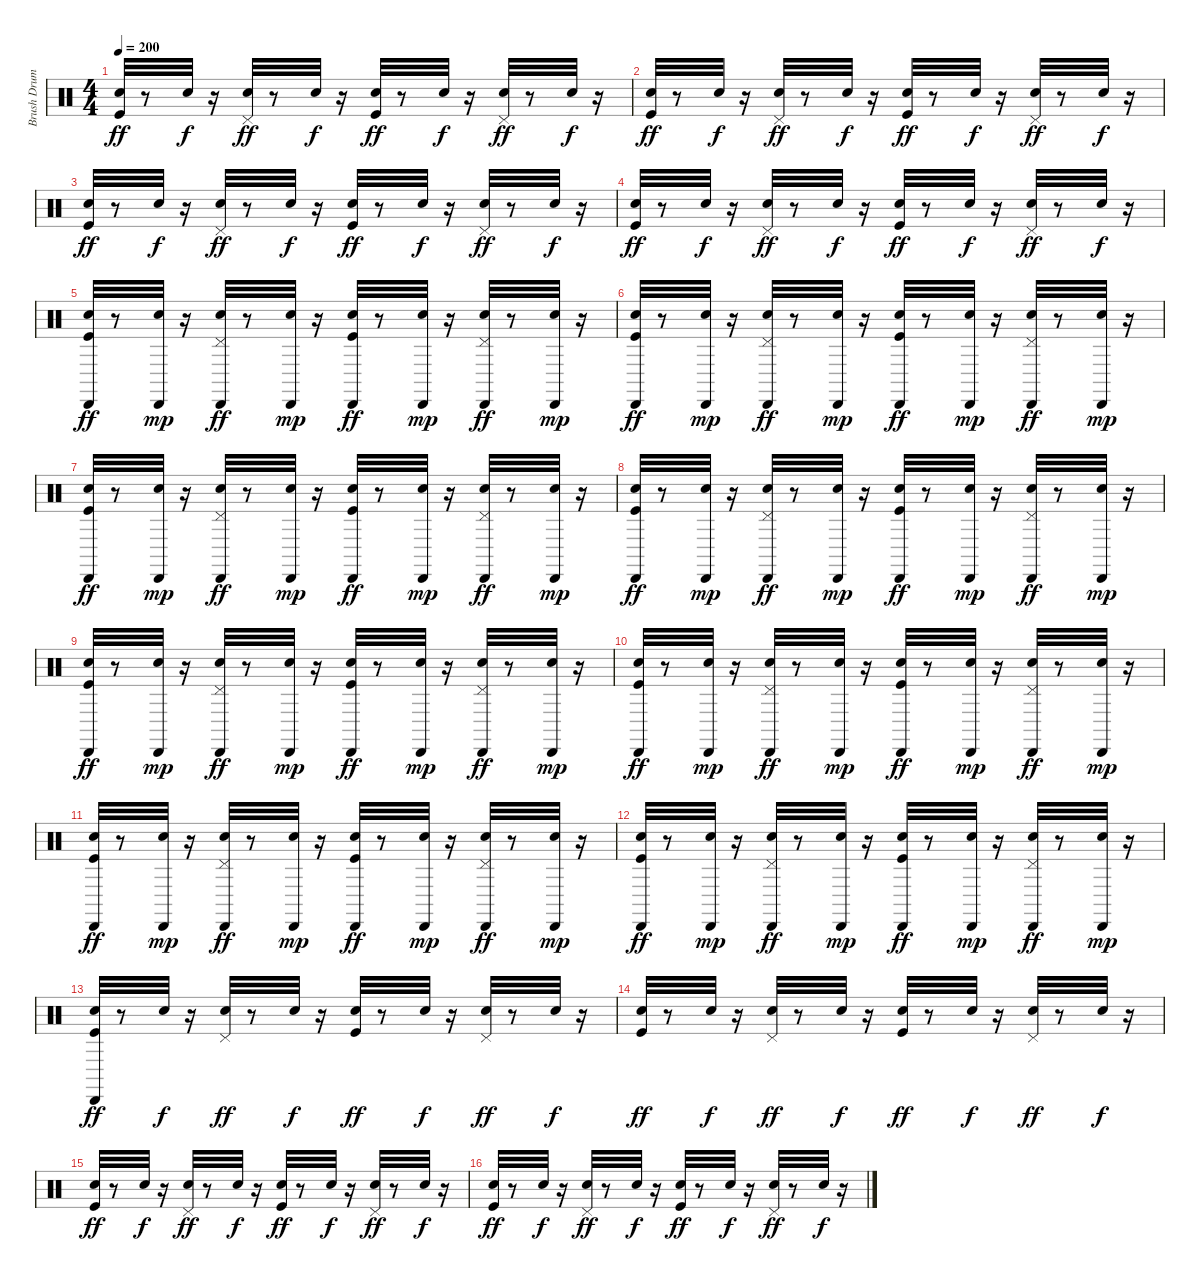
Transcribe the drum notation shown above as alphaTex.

\track ("Brush Drums" "Brush Drum") {instrument percussion}
\staff {score}
\articulation defaults
\ts (4 4)
\tempo 200
\clef neutral
\ks c
("Snare (hit) 2" "Kick (hit)").32{dy ff} r.8 "Snare (hit) 2".32{dy f} r.16 ("Pedal Hi-Hat (hit)" "Hand Clap (hit)").32{dy ff} r.8 "Snare (hit) 2".32{dy f} r.16 ("Kick (hit)" "Snare (hit) 2").32{dy ff} r.8 "Snare (hit) 2".32{dy f} r.16 ("Pedal Hi-Hat (hit)" "Hand Clap (hit)").32{dy ff} r.8 "Snare (hit) 2".32{dy f} r.16 |
("Snare (hit) 2" "Kick (hit)").32{dy ff} r.8 "Snare (hit) 2".32{dy f} r.16 ("Pedal Hi-Hat (hit)" "Hand Clap (hit)").32{dy ff} r.8 "Snare (hit) 2".32{dy f} r.16 ("Snare (hit) 2" "Kick (hit)").32{dy ff} r.8 "Snare (hit) 2".32{dy f} r.16 ("Pedal Hi-Hat (hit)" "Hand Clap (hit)").32{dy ff} r.8 "Snare (hit) 2".32{dy f} r.16 |
("Kick (hit)" "Snare (hit) 2").32{dy ff} r.8 "Snare (hit) 2".32{dy f} r.16 ("Pedal Hi-Hat (hit)" "Hand Clap (hit)").32{dy ff} r.8 "Snare (hit) 2".32{dy f} r.16 ("Snare (hit) 2" "Kick (hit)").32{dy ff} r.8 "Snare (hit) 2".32{dy f} r.16 ("Pedal Hi-Hat (hit)" "Hand Clap (hit)").32{dy ff} r.8 "Snare (hit) 2".32{dy f} r.16 |
("Snare (hit) 2" "Kick (hit)").32{dy ff} r.8 "Snare (hit) 2".32{dy f} r.16 ("Pedal Hi-Hat (hit)" "Hand Clap (hit)").32{dy ff} r.8 "Snare (hit) 2".32{dy f} r.16 ("Kick (hit)" "Snare (hit) 2").32{dy ff} r.8 "Hand Clap (hit)".32{dy f} r.16 ("Pedal Hi-Hat (hit)" "Hand Clap (hit)").32{dy ff} r.8 "Snare (hit) 2".32{dy f} r.16 |
("Cabasa (hit)" "Kick (hit)" "Snare (hit) 2").32{dy ff} r.8 ("Cabasa (hit)" "Snare (hit) 2").32{dy mp} r.16 ("Cabasa (hit)" "Hand Clap (hit)" "Pedal Hi-Hat (hit)").32{dy ff} r.8 ("Cabasa (hit)" "Snare (hit) 2").32{dy mp} r.16 ("Cabasa (hit)" "Snare (hit) 2" "Kick (hit)").32{dy ff} r.8 ("Cabasa (hit)" "Snare (hit) 2").32{dy mp} r.16 ("Cabasa (hit)" "Hand Clap (hit)" "Pedal Hi-Hat (hit)").32{dy ff} r.8 ("Cabasa (hit)" "Snare (hit) 2").32{dy mp} r.16 |
("Cabasa (hit)" "Snare (hit) 2" "Kick (hit)").32{dy ff} r.8 ("Cabasa (hit)" "Snare (hit) 2").32{dy mp} r.16 ("Cabasa (hit)" "Pedal Hi-Hat (hit)" "Hand Clap (hit)").32{dy ff} r.8 ("Cabasa (hit)" "Snare (hit) 2").32{dy mp} r.16 ("Cabasa (hit)" "Kick (hit)" "Snare (hit) 2").32{dy ff} r.8 ("Cabasa (hit)" "Snare (hit) 2").32{dy mp} r.16 ("Cabasa (hit)" "Hand Clap (hit)" "Pedal Hi-Hat (hit)").32{dy ff} r.8 ("Cabasa (hit)" "Snare (hit) 2").32{dy mp} r.16 |
("Cabasa (hit)" "Snare (hit) 2" "Kick (hit)").32{dy ff} r.8 ("Cabasa (hit)" "Snare (hit) 2").32{dy mp} r.16 ("Cabasa (hit)" "Pedal Hi-Hat (hit)" "Hand Clap (hit)").32{dy ff} r.8 ("Cabasa (hit)" "Snare (hit) 2").32{dy mp} r.16 ("Cabasa (hit)" "Snare (hit) 2" "Kick (hit)").32{dy ff} r.8 ("Cabasa (hit)" "Snare (hit) 2").32{dy mp} r.16 ("Cabasa (hit)" "Pedal Hi-Hat (hit)" "Hand Clap (hit)").32{dy ff} r.8 ("Cabasa (hit)" "Snare (hit) 2").32{dy mp} r.16 |
("Cabasa (hit)" "Snare (hit) 2" "Kick (hit)").32{dy ff} r.8 ("Cabasa (hit)" "Snare (hit) 2").32{dy mp} r.16 ("Cabasa (hit)" "Hand Clap (hit)" "Pedal Hi-Hat (hit)").32{dy ff} r.8 ("Cabasa (hit)" "Snare (hit) 2").32{dy mp} r.16 ("Cabasa (hit)" "Snare (hit) 2" "Kick (hit)").32{dy ff} r.8 ("Cabasa (hit)" "Snare (hit) 2").32{dy mp} r.16 ("Cabasa (hit)" "Hand Clap (hit)" "Pedal Hi-Hat (hit)").32{dy ff} r.8 ("Cabasa (hit)" "Snare (hit) 2").32{dy mp} r.16 |
("Cabasa (hit)" "Snare (hit) 2" "Kick (hit)").32{dy ff} r.8 ("Cabasa (hit)" "Snare (hit) 2").32{dy mp} r.16 ("Cabasa (hit)" "Pedal Hi-Hat (hit)" "Hand Clap (hit)").32{dy ff} r.8 ("Cabasa (hit)" "Snare (hit) 2").32{dy mp} r.16 ("Cabasa (hit)" "Snare (hit) 2" "Kick (hit)").32{dy ff} r.8 ("Cabasa (hit)" "Snare (hit) 2").32{dy mp} r.16 ("Cabasa (hit)" "Pedal Hi-Hat (hit)" "Hand Clap (hit)").32{dy ff} r.8 ("Cabasa (hit)" "Snare (hit) 2").32{dy mp} r.16 |
("Cabasa (hit)" "Kick (hit)" "Snare (hit) 2").32{dy ff} r.8 ("Cabasa (hit)" "Snare (hit) 2").32{dy mp} r.16 ("Cabasa (hit)" "Pedal Hi-Hat (hit)" "Hand Clap (hit)").32{dy ff} r.8 ("Cabasa (hit)" "Snare (hit) 2").32{dy mp} r.16 ("Cabasa (hit)" "Snare (hit) 2" "Kick (hit)").32{dy ff} r.8 ("Cabasa (hit)" "Hand Clap (hit)").32{dy mp} r.16 ("Cabasa (hit)" "Hand Clap (hit)" "Pedal Hi-Hat (hit)").32{dy ff} r.8 ("Cabasa (hit)" "Snare (hit) 2").32{dy mp} r.16 |
("Cabasa (hit)" "Snare (hit) 2" "Kick (hit)").32{dy ff} r.8 ("Cabasa (hit)" "Snare (hit) 2").32{dy mp} r.16 ("Cabasa (hit)" "Hand Clap (hit)" "Pedal Hi-Hat (hit)").32{dy ff} r.8 ("Cabasa (hit)" "Snare (hit) 2").32{dy mp} r.16 ("Cabasa (hit)" "Kick (hit)" "Snare (hit) 2").32{dy ff} r.8 ("Cabasa (hit)" "Snare (hit) 2").32{dy mp} r.16 ("Cabasa (hit)" "Hand Clap (hit)" "Pedal Hi-Hat (hit)").32{dy ff} r.8 ("Cabasa (hit)" "Snare (hit) 2").32{dy mp} r.16 |
("Cabasa (hit)" "Snare (hit) 2" "Kick (hit)").32{dy ff} r.8 ("Cabasa (hit)" "Snare (hit) 2").32{dy mp} r.16 ("Cabasa (hit)" "Hand Clap (hit)" "Pedal Hi-Hat (hit)").32{dy ff} r.8 ("Cabasa (hit)" "Snare (hit) 2").32{dy mp} r.16 ("Cabasa (hit)" "Kick (hit)" "Snare (hit) 2").32{dy ff} r.8 ("Cabasa (hit)" "Hand Clap (hit)").32{dy mp} r.16 ("Cabasa (hit)" "Hand Clap (hit)" "Pedal Hi-Hat (hit)").32{dy ff} r.8 ("Cabasa (hit)" "Snare (hit) 2").32{dy mp} r.16 |
("Cabasa (hit)" "Snare (hit) 2" "Kick (hit)").32{dy ff} r.8 "Snare (hit) 2".32{dy f} r.16 ("Pedal Hi-Hat (hit)" "Hand Clap (hit)").32{dy ff} r.8 "Snare (hit) 2".32{dy f} r.16 ("Snare (hit) 2" "Kick (hit)").32{dy ff} r.8 "Snare (hit) 2".32{dy f} r.16 ("Hand Clap (hit)" "Pedal Hi-Hat (hit)").32{dy ff} r.8 "Snare (hit) 2".32{dy f} r.16 |
("Kick (hit)" "Snare (hit) 2").32{dy ff} r.8 "Snare (hit) 2".32{dy f} r.16 ("Hand Clap (hit)" "Pedal Hi-Hat (hit)").32{dy ff} r.8 "Snare (hit) 2".32{dy f} r.16 ("Snare (hit) 2" "Kick (hit)").32{dy ff} r.8 "Snare (hit) 2".32{dy f} r.16 ("Hand Clap (hit)" "Pedal Hi-Hat (hit)").32{dy ff} r.8 "Snare (hit) 2".32{dy f} r.16 |
("Snare (hit) 2" "Kick (hit)").32{dy ff} r.8 "Snare (hit) 2".32{dy f} r.16 ("Hand Clap (hit)" "Pedal Hi-Hat (hit)").32{dy ff} r.8 "Snare (hit) 2".32{dy f} r.16 ("Kick (hit)" "Snare (hit) 2").32{dy ff} r.8 "Snare (hit) 2".32{dy f} r.16 ("Hand Clap (hit)" "Pedal Hi-Hat (hit)").32{dy ff} r.8 "Snare (hit) 2".32{dy f} r.16 |
("Kick (hit)" "Snare (hit) 2").32{dy ff} r.8 "Snare (hit) 2".32{dy f} r.16 ("Hand Clap (hit)" "Pedal Hi-Hat (hit)").32{dy ff} r.8 "Snare (hit) 2".32{dy f} r.16 ("Kick (hit)" "Snare (hit) 2").32{dy ff} r.8 "Snare (hit) 2".32{dy f} r.16 ("Pedal Hi-Hat (hit)" "Hand Clap (hit)").32{dy ff} r.8 "Snare (hit) 2".32{dy f} r.16
